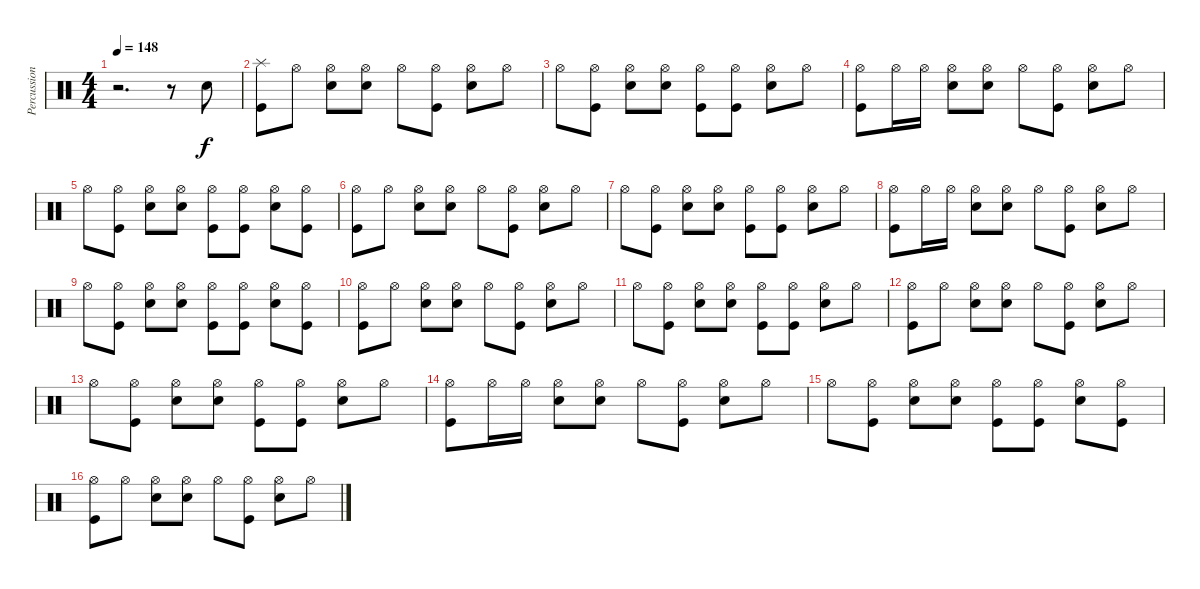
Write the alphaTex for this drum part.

\track ("Percussion" "Percussion") {instrument percussion}
\staff {score}
\articulation defaults
\ts (4 4)
\tempo 148
\clef neutral
\ks c
r.2{d dy f} r.8 "Snare (hit) 2".8 |
("Splash (hit)" "Kick (hit)").8 "Hi-Hat (open)".8 ("Hi-Hat (open)" "Snare (hit) 2").8 ("Hi-Hat (open)" "Snare (hit) 2").8 "Hi-Hat (open)".8 ("Hi-Hat (open)" "Kick (hit)").8 ("Hi-Hat (open)" "Snare (hit) 2").8 "Hi-Hat (open)".8 |
"Hi-Hat (open)".8 ("Hi-Hat (open)" "Kick (hit)").8 ("Hi-Hat (open)" "Snare (hit) 2").8 ("Hi-Hat (open)" "Snare (hit) 2").8 ("Hi-Hat (open)" "Kick (hit)").8 ("Hi-Hat (open)" "Kick (hit)").8 ("Hi-Hat (open)" "Snare (hit) 2").8 "Hi-Hat (open)".8 |
("Hi-Hat (open)" "Kick (hit)").8 "Hi-Hat (open)".16 "Hi-Hat (open)".16 ("Hi-Hat (open)" "Snare (hit) 2").8 ("Hi-Hat (open)" "Snare (hit) 2").8 "Hi-Hat (open)".8 ("Hi-Hat (open)" "Kick (hit)").8 ("Hi-Hat (open)" "Snare (hit) 2").8 "Hi-Hat (open)".8 |
"Hi-Hat (open)".8 ("Hi-Hat (open)" "Kick (hit)").8 ("Hi-Hat (open)" "Snare (hit) 2").8 ("Hi-Hat (open)" "Snare (hit) 2").8 ("Hi-Hat (open)" "Kick (hit)").8 ("Hi-Hat (open)" "Kick (hit)").8 ("Hi-Hat (open)" "Snare (hit) 2").8 ("Hi-Hat (open)" "Kick (hit)").8 |
("Hi-Hat (open)" "Kick (hit)").8 "Hi-Hat (open)".8 ("Hi-Hat (open)" "Snare (hit) 2").8 ("Hi-Hat (open)" "Snare (hit) 2").8 "Hi-Hat (open)".8 ("Hi-Hat (open)" "Kick (hit)").8 ("Hi-Hat (open)" "Snare (hit) 2").8 "Hi-Hat (open)".8 |
"Hi-Hat (open)".8 ("Hi-Hat (open)" "Kick (hit)").8 ("Hi-Hat (open)" "Snare (hit) 2").8 ("Hi-Hat (open)" "Snare (hit) 2").8 ("Hi-Hat (open)" "Kick (hit)").8 ("Hi-Hat (open)" "Kick (hit)").8 ("Hi-Hat (open)" "Snare (hit) 2").8 "Hi-Hat (open)".8 |
("Hi-Hat (open)" "Kick (hit)").8 "Hi-Hat (open)".16 "Hi-Hat (open)".16 ("Hi-Hat (open)" "Snare (hit) 2").8 ("Hi-Hat (open)" "Snare (hit) 2").8 "Hi-Hat (open)".8 ("Hi-Hat (open)" "Kick (hit)").8 ("Hi-Hat (open)" "Snare (hit) 2").8 "Hi-Hat (open)".8 |
"Hi-Hat (open)".8 ("Hi-Hat (open)" "Kick (hit)").8 ("Hi-Hat (open)" "Snare (hit) 2").8 ("Hi-Hat (open)" "Snare (hit) 2").8 ("Hi-Hat (open)" "Kick (hit)").8 ("Hi-Hat (open)" "Kick (hit)").8 ("Hi-Hat (open)" "Snare (hit) 2").8 ("Hi-Hat (open)" "Kick (hit)").8 |
("Hi-Hat (open)" "Kick (hit)").8 "Hi-Hat (open)".8 ("Hi-Hat (open)" "Snare (hit) 2").8 ("Hi-Hat (open)" "Snare (hit) 2").8 "Hi-Hat (open)".8 ("Hi-Hat (open)" "Kick (hit)").8 ("Hi-Hat (open)" "Snare (hit) 2").8 "Hi-Hat (open)".8 |
"Hi-Hat (open)".8 ("Hi-Hat (open)" "Kick (hit)").8 ("Hi-Hat (open)" "Snare (hit) 2").8 ("Hi-Hat (open)" "Snare (hit) 2").8 ("Hi-Hat (open)" "Kick (hit)").8 ("Hi-Hat (open)" "Kick (hit)").8 ("Hi-Hat (open)" "Snare (hit) 2").8 "Hi-Hat (open)".8 |
("Hi-Hat (open)" "Kick (hit)").8 "Hi-Hat (open)".8 ("Hi-Hat (open)" "Snare (hit) 2").8 ("Hi-Hat (open)" "Snare (hit) 2").8 "Hi-Hat (open)".8 ("Hi-Hat (open)" "Kick (hit)").8 ("Hi-Hat (open)" "Snare (hit) 2").8 "Hi-Hat (open)".8 |
"Hi-Hat (open)".8 ("Hi-Hat (open)" "Kick (hit)").8 ("Hi-Hat (open)" "Snare (hit) 2").8 ("Hi-Hat (open)" "Snare (hit) 2").8 ("Hi-Hat (open)" "Kick (hit)").8 ("Hi-Hat (open)" "Kick (hit)").8 ("Hi-Hat (open)" "Snare (hit) 2").8 "Hi-Hat (open)".8 |
("Hi-Hat (open)" "Kick (hit)").8 "Hi-Hat (open)".16 "Hi-Hat (open)".16 ("Hi-Hat (open)" "Snare (hit) 2").8 ("Hi-Hat (open)" "Snare (hit) 2").8 "Hi-Hat (open)".8 ("Hi-Hat (open)" "Kick (hit)").8 ("Hi-Hat (open)" "Snare (hit) 2").8 "Hi-Hat (open)".8 |
"Hi-Hat (open)".8 ("Hi-Hat (open)" "Kick (hit)").8 ("Hi-Hat (open)" "Snare (hit) 2").8 ("Hi-Hat (open)" "Snare (hit) 2").8 ("Hi-Hat (open)" "Kick (hit)").8 ("Hi-Hat (open)" "Kick (hit)").8 ("Hi-Hat (open)" "Snare (hit) 2").8 ("Hi-Hat (open)" "Kick (hit)").8 |
("Hi-Hat (open)" "Kick (hit)").8 "Hi-Hat (open)".8 ("Hi-Hat (open)" "Snare (hit) 2").8 ("Hi-Hat (open)" "Snare (hit) 2").8 "Hi-Hat (open)".8 ("Hi-Hat (open)" "Kick (hit)").8 ("Hi-Hat (open)" "Snare (hit) 2").8 "Hi-Hat (open)".8
